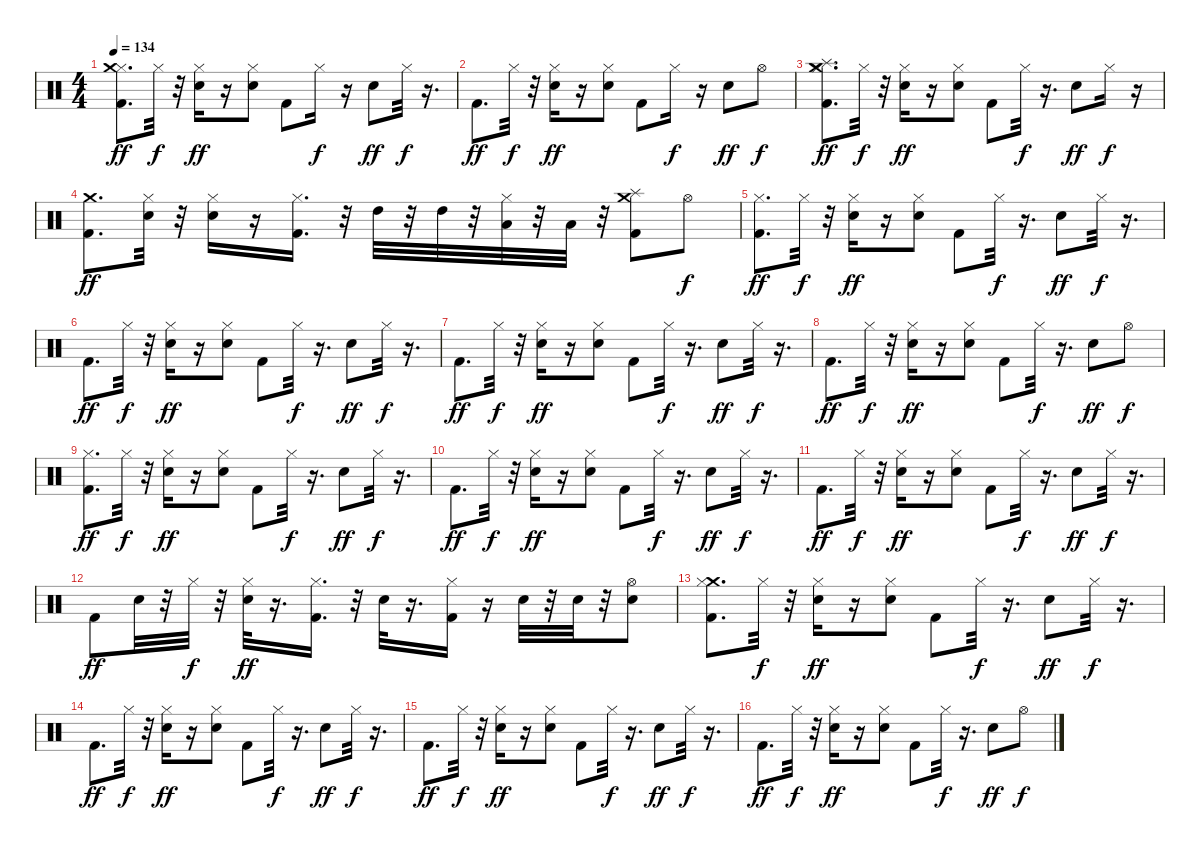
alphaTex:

\track "" {instrument percussion}
\staff {score}
\articulation defaults
\ts (4 4)
\tempo 134
\clef neutral
\ks c
("Hi-Hat (closed)" "Kick (hit) 2" "Crash medium (hit)").8{d dy ff} "Hi-Hat (closed)".32{dy f} r.32 ("Snare (hit) 2" "Hi-Hat (closed)").16{dy ff} r.16 ("Snare (hit) 2" "Hi-Hat (closed)").8 "Kick (hit) 2".8 "Hi-Hat (closed)".16{dy f} r.16 "Snare (hit) 2".8{dy ff} "Hi-Hat (closed)".32{dy f} r.16{d} |
"Kick (hit) 2".8{d dy ff} "Hi-Hat (closed)".32{dy f} r.32 ("Snare (hit) 2" "Hi-Hat (closed)").16{dy ff} r.16 ("Hi-Hat (closed)" "Snare (hit) 2").8 "Kick (hit) 2".8 "Hi-Hat (closed)".16{dy f} r.16 "Snare (hit) 2".8{dy ff} "Hi-Hat (open)".8{dy f} |
("Crash medium (hit)" "Kick (hit) 2" "Splash (hit)" "Hi-Hat (closed)").8{d dy ff} "Hi-Hat (closed)".32{dy f} r.32 ("Snare (hit) 2" "Hi-Hat (closed)").16{dy ff} r.16 ("Hi-Hat (closed)" "Snare (hit) 2").8 "Kick (hit) 2".8 "Hi-Hat (closed)".32{dy f} r.16{d} "Snare (hit) 2".8{dy ff} "Hi-Hat (closed)".16{dy f} r.16 |
("Kick (hit) 2" "Crash medium (hit)").8{d dy ff} ("Snare (hit) 2" "Hi-Hat (closed)").32 r.32 ("Snare (hit) 2" "Hi-Hat (closed)").16 r.16 ("Kick (hit) 2" "Hi-Hat (closed)").16{d} r.32 "High Tom (hit)".32 r.32 "High Tom (hit)".32 r.32 ("Low Tom (hit)" "Hi-Hat (closed)").32 r.32 "Low Tom (hit)".32 r.32 ("Crash medium (hit)" "Kick (hit) 2" "Splash (hit)").8 "Hi-Hat (open)".8{dy f} |
("Hi-Hat (closed)" "Kick (hit) 2").8{d dy ff} "Hi-Hat (closed)".32{dy f} r.32 ("Snare (hit) 2" "Hi-Hat (closed)").16{dy ff} r.16 ("Hi-Hat (closed)" "Snare (hit) 2").8 "Kick (hit) 2".8 "Hi-Hat (closed)".32{dy f} r.16{d} "Snare (hit) 2".8{dy ff} "Hi-Hat (closed)".32{dy f} r.16{d} |
"Kick (hit) 2".8{d dy ff} "Hi-Hat (closed)".32{dy f} r.32 ("Hi-Hat (closed)" "Snare (hit) 2").16{dy ff} r.16 ("Snare (hit) 2" "Hi-Hat (closed)").8 "Kick (hit) 2".8 "Hi-Hat (closed)".32{dy f} r.16{d} "Snare (hit) 2".8{dy ff} "Hi-Hat (closed)".32{dy f} r.16{d} |
"Kick (hit) 2".8{d dy ff} "Hi-Hat (closed)".32{dy f} r.32 ("Snare (hit) 2" "Hi-Hat (closed)").16{dy ff} r.16 ("Snare (hit) 2" "Hi-Hat (closed)").8 "Kick (hit) 2".8 "Hi-Hat (closed)".32{dy f} r.16{d} "Snare (hit) 2".8{dy ff} "Hi-Hat (closed)".32{dy f} r.16{d} |
"Kick (hit) 2".8{d dy ff} "Hi-Hat (closed)".32{dy f} r.32 ("Hi-Hat (closed)" "Snare (hit) 2").16{dy ff} r.16 ("Snare (hit) 2" "Hi-Hat (closed)").8 "Kick (hit) 2".8 "Hi-Hat (closed)".32{dy f} r.16{d} "Snare (hit) 2".8{dy ff} "Hi-Hat (open)".8{dy f} |
("Hi-Hat (closed)" "Kick (hit) 2").8{d dy ff} "Hi-Hat (closed)".32{dy f} r.32 ("Hi-Hat (closed)" "Snare (hit) 2").16{dy ff} r.16 ("Hi-Hat (closed)" "Snare (hit) 2").8 "Kick (hit) 2".8 "Hi-Hat (closed)".32{dy f} r.16{d} "Snare (hit) 2".8{dy ff} "Hi-Hat (closed)".32{dy f} r.16{d} |
"Kick (hit) 2".8{d dy ff} "Hi-Hat (closed)".32{dy f} r.32 ("Snare (hit) 2" "Hi-Hat (closed)").16{dy ff} r.16 ("Snare (hit) 2" "Hi-Hat (closed)").8 "Kick (hit) 2".8 "Hi-Hat (closed)".32{dy f} r.16{d} "Snare (hit) 2".8{dy ff} "Hi-Hat (closed)".32{dy f} r.16{d} |
"Kick (hit) 2".8{d dy ff} "Hi-Hat (closed)".32{dy f} r.32 ("Hi-Hat (closed)" "Snare (hit) 2").16{dy ff} r.16 ("Hi-Hat (closed)" "Snare (hit) 2").8 "Kick (hit) 2".8 "Hi-Hat (closed)".32{dy f} r.16{d} "Snare (hit) 2".8{dy ff} "Hi-Hat (closed)".32{dy f} r.16{d} |
"Kick (hit) 2".8{dy ff} "Snare (hit) 2".32 r.32 "Hi-Hat (closed)".32{dy f} r.32 ("Hi-Hat (closed)" "Snare (hit) 2").32{dy ff} r.16{d} ("Hi-Hat (closed)" "Kick (hit) 2").16{d} r.32 "Snare (hit) 2".32 r.16{d} ("Kick (hit) 2" "Hi-Hat (closed)").16 r.16 "Snare (hit) 2".32 r.32 "Snare (hit) 2".32 r.32 ("Snare (hit) 2" "Hi-Hat (open)").8 |
("Kick (hit) 2" "Crash medium (hit)" "Hi-Hat (closed)").8{d} "Hi-Hat (closed)".32{dy f} r.32 ("Hi-Hat (closed)" "Snare (hit) 2").16{dy ff} r.16 ("Hi-Hat (closed)" "Snare (hit) 2").8 "Kick (hit) 2".8 "Hi-Hat (closed)".32{dy f} r.16{d} "Snare (hit) 2".8{dy ff} "Hi-Hat (closed)".32{dy f} r.16{d} |
"Kick (hit) 2".8{d dy ff} "Hi-Hat (closed)".32{dy f} r.32 ("Snare (hit) 2" "Hi-Hat (closed)").16{dy ff} r.16 ("Snare (hit) 2" "Hi-Hat (closed)").8 "Kick (hit) 2".8 "Hi-Hat (closed)".32{dy f} r.16{d} "Snare (hit) 2".8{dy ff} "Hi-Hat (closed)".32{dy f} r.16{d} |
"Kick (hit) 2".8{d dy ff} "Hi-Hat (closed)".32{dy f} r.32 ("Hi-Hat (closed)" "Snare (hit) 2").16{dy ff} r.16 ("Hi-Hat (closed)" "Snare (hit) 2").8 "Kick (hit) 2".8 "Hi-Hat (closed)".32{dy f} r.16{d} "Snare (hit) 2".8{dy ff} "Hi-Hat (closed)".32{dy f} r.16{d} |
"Kick (hit) 2".8{d dy ff} "Hi-Hat (closed)".32{dy f} r.32 ("Snare (hit) 2" "Hi-Hat (closed)").16{dy ff} r.16 ("Hi-Hat (closed)" "Snare (hit) 2").8 "Kick (hit) 2".8 "Hi-Hat (closed)".32{dy f} r.16{d} "Snare (hit) 2".8{dy ff} "Hi-Hat (open)".8{dy f}
